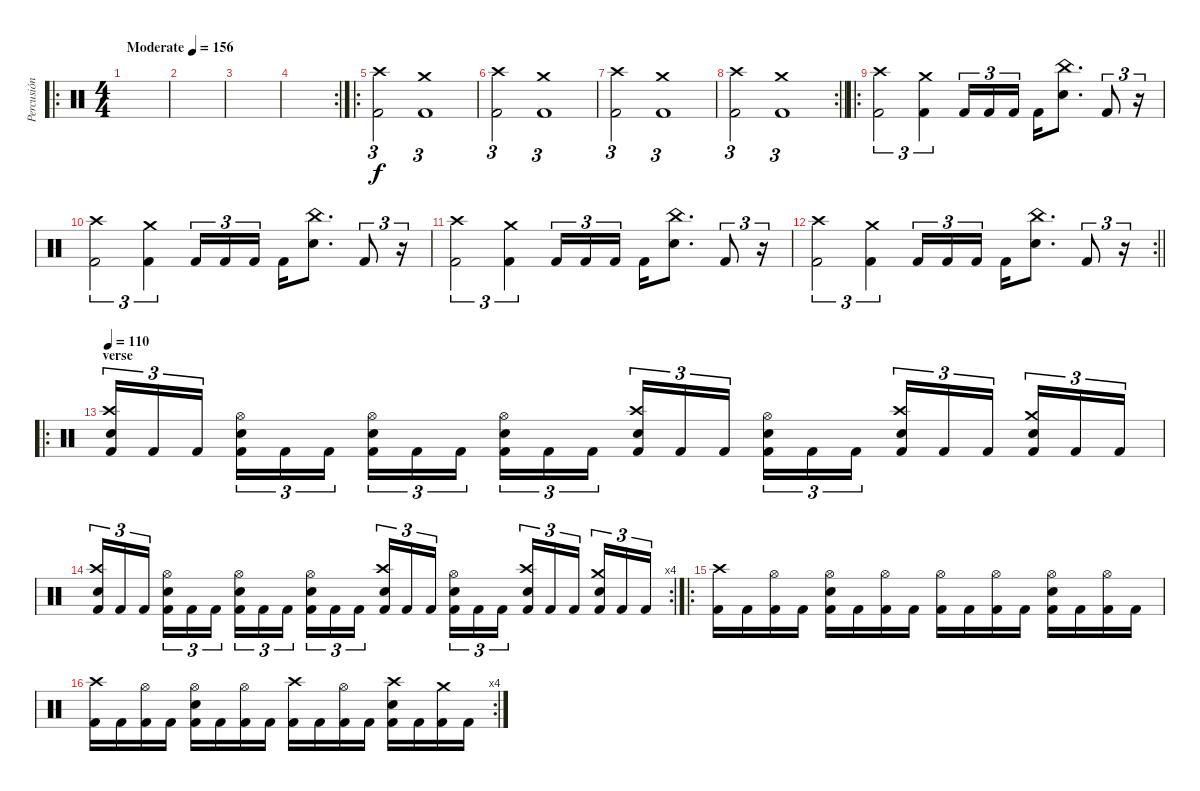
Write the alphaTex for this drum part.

\track ("Percusión" "Percusión") {instrument percussion}
\staff
\articulation defaults
\ro
\ts (4 4)
\tempo (156 "Moderate")
\clef neutral
\ks c
|
|
|
\rc 2
|
\ro
("Kick (hit) 2" "Crash high (hit)").2{tu (3 2)} ("Kick (hit) 2" "Crash medium (hit)").1{tu (3 2)} |
("Kick (hit) 2" "Crash high (hit)").2{tu (3 2)} ("Kick (hit) 2" "Crash medium (hit)").1{tu (3 2)} |
("Kick (hit) 2" "Crash high (hit)").2{tu (3 2)} ("Kick (hit) 2" "Crash medium (hit)").1{tu (3 2)} |
\rc 2
\barLineRight lightlight
("Kick (hit) 2" "Crash high (hit)").2{tu (3 2)} ("Kick (hit) 2" "Crash medium (hit)").1{tu (3 2)} |
\ro
("Kick (hit) 2" "Crash high (hit)").2{tu (3 2)} ("Kick (hit) 2" "Crash medium (hit)").4{tu (3 2)} "Kick (hit) 2".16{tu (3 2)} "Kick (hit) 2".16{tu (3 2)} "Kick (hit) 2".16{tu (3 2) beam splitsecondary} "Kick (hit) 2".16 ("Electric Snare (hit)" "China (hit)").8{d} "Kick (hit) 2".8{tu (3 2)} r.16{tu (3 2)} |
("Kick (hit) 2" "Crash high (hit)").2{tu (3 2)} ("Kick (hit) 2" "Crash medium (hit)").4{tu (3 2)} "Kick (hit) 2".16{tu (3 2)} "Kick (hit) 2".16{tu (3 2)} "Kick (hit) 2".16{tu (3 2) beam splitsecondary} "Kick (hit) 2".16 ("Electric Snare (hit)" "China (hit)").8{d} "Kick (hit) 2".8{tu (3 2)} r.16{tu (3 2)} |
("Kick (hit) 2" "Crash high (hit)").2{tu (3 2)} ("Kick (hit) 2" "Crash medium (hit)").4{tu (3 2)} "Kick (hit) 2".16{tu (3 2)} "Kick (hit) 2".16{tu (3 2)} "Kick (hit) 2".16{tu (3 2) beam splitsecondary} "Kick (hit) 2".16 ("Electric Snare (hit)" "China (hit)").8{d} "Kick (hit) 2".8{tu (3 2)} r.16{tu (3 2)} |
\rc 2
\barLineRight lightlight
("Kick (hit) 2" "Crash high (hit)").2{tu (3 2)} ("Kick (hit) 2" "Crash medium (hit)").4{tu (3 2)} "Kick (hit) 2".16{tu (3 2)} "Kick (hit) 2".16{tu (3 2)} "Kick (hit) 2".16{tu (3 2) beam splitsecondary} "Kick (hit) 2".16 ("Electric Snare (hit)" "China (hit)").8{d} "Kick (hit) 2".8{tu (3 2)} r.16{tu (3 2)} |
\ro
\section ("" "verse")
\tempo 110
("Kick (hit) 2" "Crash high (hit)" "Electric Snare (hit)").16{tu (3 2)} "Kick (hit) 2".16{tu (3 2)} "Kick (hit) 2".16{tu (3 2) beam splitsecondary} ("Kick (hit) 2" "Hi-Hat (open)" "Electric Snare (hit)").16{tu (3 2)} "Kick (hit) 2".16{tu (3 2)} "Kick (hit) 2".16{tu (3 2)} ("Kick (hit) 2" "Hi-Hat (open)" "Electric Snare (hit)").16{tu (3 2)} "Kick (hit) 2".16{tu (3 2)} "Kick (hit) 2".16{tu (3 2) beam splitsecondary} ("Kick (hit) 2" "Hi-Hat (open)" "Electric Snare (hit)").16{tu (3 2)} "Kick (hit) 2".16{tu (3 2)} "Kick (hit) 2".16{tu (3 2)} ("Kick (hit) 2" "Crash high (hit)" "Electric Snare (hit)").16{tu (3 2)} "Kick (hit) 2".16{tu (3 2)} "Kick (hit) 2".16{tu (3 2) beam splitsecondary} ("Kick (hit) 2" "Hi-Hat (open)" "Electric Snare (hit)").16{tu (3 2)} "Kick (hit) 2".16{tu (3 2)} "Kick (hit) 2".16{tu (3 2)} ("Kick (hit) 2" "Crash high (hit)" "Electric Snare (hit)").16{tu (3 2)} "Kick (hit) 2".16{tu (3 2)} "Kick (hit) 2".16{tu (3 2) beam splitsecondary} ("Kick (hit) 2" "Crash medium (hit)" "Electric Snare (hit)").16{tu (3 2)} "Kick (hit) 2".16{tu (3 2)} "Kick (hit) 2".16{tu (3 2)} |
\rc 4
("Kick (hit) 2" "Crash high (hit)" "Electric Snare (hit)").16{tu (3 2)} "Kick (hit) 2".16{tu (3 2)} "Kick (hit) 2".16{tu (3 2) beam splitsecondary} ("Kick (hit) 2" "Hi-Hat (open)" "Electric Snare (hit)").16{tu (3 2)} "Kick (hit) 2".16{tu (3 2)} "Kick (hit) 2".16{tu (3 2)} ("Kick (hit) 2" "Hi-Hat (open)" "Electric Snare (hit)").16{tu (3 2)} "Kick (hit) 2".16{tu (3 2)} "Kick (hit) 2".16{tu (3 2) beam splitsecondary} ("Kick (hit) 2" "Hi-Hat (open)" "Electric Snare (hit)").16{tu (3 2)} "Kick (hit) 2".16{tu (3 2)} "Kick (hit) 2".16{tu (3 2)} ("Kick (hit) 2" "Crash high (hit)" "Electric Snare (hit)").16{tu (3 2)} "Kick (hit) 2".16{tu (3 2)} "Kick (hit) 2".16{tu (3 2) beam splitsecondary} ("Kick (hit) 2" "Hi-Hat (open)" "Electric Snare (hit)").16{tu (3 2)} "Kick (hit) 2".16{tu (3 2)} "Kick (hit) 2".16{tu (3 2)} ("Kick (hit) 2" "Crash high (hit)" "Electric Snare (hit)").16{tu (3 2)} "Kick (hit) 2".16{tu (3 2)} "Kick (hit) 2".16{tu (3 2) beam splitsecondary} ("Kick (hit) 2" "Crash medium (hit)" "Electric Snare (hit)").16{tu (3 2)} "Kick (hit) 2".16{tu (3 2)} "Kick (hit) 2".16{tu (3 2)} |
\ro
("Kick (hit) 2" "Crash high (hit)").16 "Kick (hit) 2".16 ("Kick (hit) 2" "Hi-Hat (open)").16 "Kick (hit) 2".16 ("Kick (hit) 2" "Hi-Hat (open)" "Electric Snare (hit)").16 "Kick (hit) 2".16 ("Kick (hit) 2" "Hi-Hat (open)").16 "Kick (hit) 2".16 ("Kick (hit) 2" "Hi-Hat (open)").16 "Kick (hit) 2".16 ("Kick (hit) 2" "Hi-Hat (open)").16 "Kick (hit) 2".16 ("Kick (hit) 2" "Hi-Hat (open)" "Electric Snare (hit)").16 "Kick (hit) 2".16 ("Kick (hit) 2" "Hi-Hat (open)").16 "Kick (hit) 2".16 |
\rc 4
("Kick (hit) 2" "Crash high (hit)").16 "Kick (hit) 2".16 ("Kick (hit) 2" "Hi-Hat (open)").16 "Kick (hit) 2".16 ("Kick (hit) 2" "Hi-Hat (open)" "Electric Snare (hit)").16 "Kick (hit) 2".16 ("Kick (hit) 2" "Hi-Hat (open)").16 "Kick (hit) 2".16 ("Kick (hit) 2" "Crash high (hit)").16 "Kick (hit) 2".16 ("Kick (hit) 2" "Hi-Hat (open)").16 "Kick (hit) 2".16 ("Kick (hit) 2" "Crash high (hit)" "Electric Snare (hit)").16 "Kick (hit) 2".16 ("Kick (hit) 2" "Crash medium (hit)").16 "Kick (hit) 2".16
